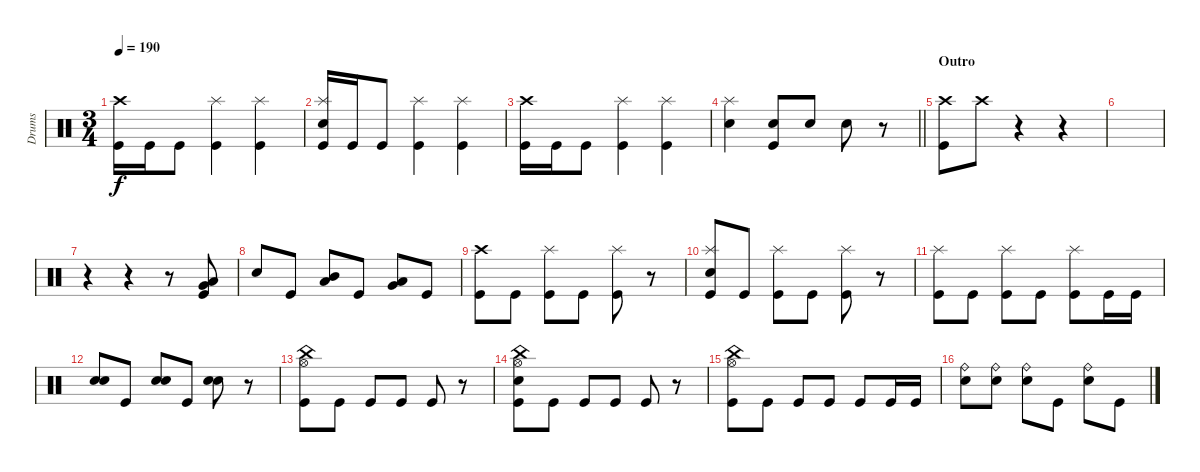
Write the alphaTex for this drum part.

\track ("Drums" "Drums") {instrument percussion}
\staff {score}
\articulation defaults
\ts (3 4)
\tempo 190
\clef neutral
\ks c
("Kick (hit)" "Crash high (hit)").16{dy f} "Kick (hit)".16 "Kick (hit)".8 ("Splash (hit)" "Kick (hit)").4 ("Kick (hit)" "Splash (hit)").4 |
("Kick (hit)" "Splash (hit)" "Snare (hit) 2").16 "Kick (hit)".16 "Kick (hit)".8 ("Kick (hit)" "Splash (hit)").4 ("Kick (hit)" "Splash (hit)").4 |
("Kick (hit)" "Crash high (hit)").16 "Kick (hit)".16 "Kick (hit)".8 ("Splash (hit)" "Kick (hit)").4 ("Kick (hit)" "Splash (hit)").4 |
\barLineRight lightlight
("Snare (hit) 2" "Splash (hit)").4 ("Snare (hit) 2" "Kick (hit)").8 "Snare (hit) 2".8 "Snare (hit) 2".8 r.8 |
\section ("" "Outro")
("Kick (hit)" "Crash high (hit)").8 "Crash high (hit)".8{volume 0} r.4 r.4 |
|
r.4 r.4 r.8 ("Kick (hit)" "Low Floor Tom (hit)" "Very Low Tom (hit)").8{volume 13} |
"Snare (hit) 2".8 "Kick (hit)".8 ("Low Tom (hit)" "Mid Tom (hit)").8 "Kick (hit)".8 ("Low Tom (hit)" "Very Low Tom (hit)").8 "Kick (hit)".8 |
("Kick (hit)" "Crash high (hit)").8 "Kick (hit)".8 ("Kick (hit)" "Splash (hit)").8 "Kick (hit)".8 ("Kick (hit)" "Splash (hit)").8 r.8 |
("Kick (hit)" "Splash (hit)" "Snare (hit) 2").8 "Kick (hit)".8 ("Kick (hit)" "Splash (hit)").8 "Kick (hit)".8 ("Kick (hit)" "Splash (hit)").8 r.8 |
("Splash (hit)" "Kick (hit)").8 "Kick (hit)".8 ("Kick (hit)" "Splash (hit)").8 "Kick (hit)".8 ("Kick (hit)" "Splash (hit)").8 "Kick (hit)".16 "Kick (hit)".16 |
("Snare (hit) 2" "Snare (hit) 2").8 "Kick (hit)".8 ("Snare (hit) 2" "Snare (hit) 2").8 "Kick (hit)".8 ("Snare (hit) 2" "Snare (hit) 2").8 r.8 |
("Kick (hit)" "China (hit)" "Hi-Hat (open)").8 "Kick (hit)".8 "Kick (hit)".8 "Kick (hit)".8 "Kick (hit)".8 r.8 |
("Kick (hit)" "China (hit)" "Hi-Hat (open)" "Snare (hit) 2").8 "Kick (hit)".8 "Kick (hit)".8 "Kick (hit)".8 "Kick (hit)".8 r.8 |
("Kick (hit)" "China (hit)" "Hi-Hat (open)").8 "Kick (hit)".8 "Kick (hit)".8 "Kick (hit)".8 "Kick (hit)".8 "Kick (hit)".16 "Kick (hit)".16 |
("Snare (hit) 2" "Ride (bell)").8 ("Snare (hit) 2" "Ride (bell)").8 ("Snare (hit) 2" "Ride (bell)").8 "Kick (hit)".8 ("Snare (hit) 2" "Ride (bell)").8 "Kick (hit)".8
